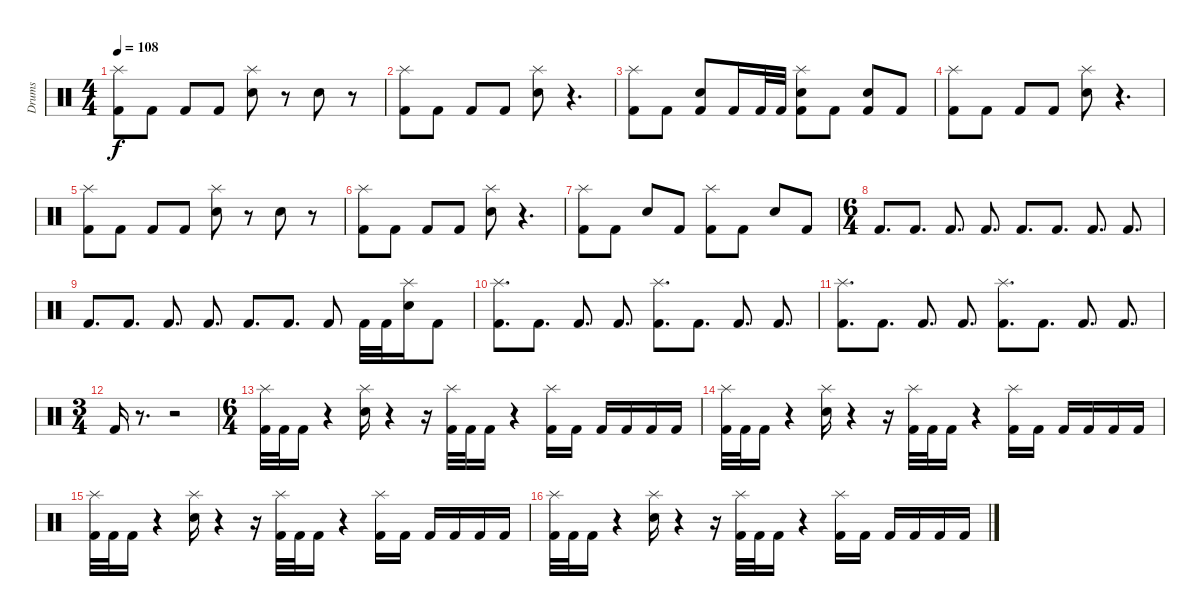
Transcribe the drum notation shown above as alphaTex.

\track ("Drums" "Drums") {instrument percussion}
\staff {score}
\articulation defaults
\ts (4 4)
\tempo 108
\clef neutral
\ks c
("Splash (hit)" "Kick (hit) 2").8{dy f} "Kick (hit) 2".8 "Kick (hit) 2".8 "Kick (hit) 2".8 ("Splash (hit)" "Snare (hit) 2").8 r.8 "Snare (hit) 2".8 r.8 |
("Splash (hit)" "Kick (hit) 2").8 "Kick (hit) 2".8 "Kick (hit) 2".8 "Kick (hit) 2".8 ("Splash (hit)" "Snare (hit) 2").8 r.4{d} |
("Splash (hit)" "Kick (hit) 2").8 "Kick (hit) 2".8 ("Snare (hit) 2" "Kick (hit) 2").8 "Kick (hit) 2".16 "Kick (hit) 2".32 "Kick (hit) 2".32 ("Splash (hit)" "Snare (hit) 2" "Kick (hit) 2").8 "Kick (hit) 2".8 ("Snare (hit) 2" "Kick (hit) 2").8 "Kick (hit) 2".8 |
("Splash (hit)" "Kick (hit) 2").8 "Kick (hit) 2".8 "Kick (hit) 2".8 "Kick (hit) 2".8 ("Splash (hit)" "Snare (hit) 2").8 r.4{d} |
("Splash (hit)" "Kick (hit) 2").8 "Kick (hit) 2".8 "Kick (hit) 2".8 "Kick (hit) 2".8 ("Splash (hit)" "Snare (hit) 2").8 r.8 "Snare (hit) 2".8 r.8 |
("Splash (hit)" "Kick (hit) 2").8 "Kick (hit) 2".8 "Kick (hit) 2".8 "Kick (hit) 2".8 ("Splash (hit)" "Snare (hit) 2").8 r.4{d} |
("Splash (hit)" "Kick (hit) 2").8 "Kick (hit) 2".8 "Snare (hit) 2".8 "Kick (hit) 2".8 ("Splash (hit)" "Kick (hit) 2").8 "Kick (hit) 2".8 "Snare (hit) 2".8 "Kick (hit) 2".8 |
\ts (6 4)
"Kick (hit) 2".8{d} "Kick (hit) 2".8{d} "Kick (hit) 2".8{d} "Kick (hit) 2".8{d} "Kick (hit) 2".8{d} "Kick (hit) 2".8{d} "Kick (hit) 2".8{d} "Kick (hit) 2".8{d} |
"Kick (hit) 2".8{d} "Kick (hit) 2".8{d} "Kick (hit) 2".8{d} "Kick (hit) 2".8{d} "Kick (hit) 2".8{d} "Kick (hit) 2".8{d} "Kick (hit) 2".8 "Kick (hit) 2".32 "Kick (hit) 2".32 ("Splash (hit)" "Snare (hit) 2").16 "Kick (hit) 2".8 |
("Splash (hit)" "Kick (hit) 2").8{d} "Kick (hit) 2".8{d} "Kick (hit) 2".8{d} "Kick (hit) 2".8{d} ("Splash (hit)" "Kick (hit) 2").8{d} "Kick (hit) 2".8{d} "Kick (hit) 2".8{d} "Kick (hit) 2".8{d} |
("Splash (hit)" "Kick (hit) 2").8{d} "Kick (hit) 2".8{d} "Kick (hit) 2".8{d} "Kick (hit) 2".8{d} ("Splash (hit)" "Kick (hit) 2").8{d} "Kick (hit) 2".8{d} "Kick (hit) 2".8{d} "Kick (hit) 2".8{d} |
\ts (3 4)
"Kick (hit) 2".16 r.8{d} r.2 |
\ts (6 4)
("Splash (hit)" "Kick (hit) 2").32 "Kick (hit) 2".32 "Kick (hit) 2".16 r.4 ("Splash (hit)" "Snare (hit) 2").16 r.4 r.16 ("Splash (hit)" "Kick (hit) 2").32 "Kick (hit) 2".32 "Kick (hit) 2".16 r.4 ("Splash (hit)" "Kick (hit) 2").16 "Kick (hit) 2".16 "Kick (hit) 2".16 "Kick (hit) 2".16 "Kick (hit) 2".16 "Kick (hit) 2".16 |
("Splash (hit)" "Kick (hit) 2").32 "Kick (hit) 2".32 "Kick (hit) 2".16 r.4 ("Splash (hit)" "Snare (hit) 2").16 r.4 r.16 ("Splash (hit)" "Kick (hit) 2").32 "Kick (hit) 2".32 "Kick (hit) 2".16 r.4 ("Splash (hit)" "Kick (hit) 2").16 "Kick (hit) 2".16 "Kick (hit) 2".16 "Kick (hit) 2".16 "Kick (hit) 2".16 "Kick (hit) 2".16 |
("Splash (hit)" "Kick (hit) 2").32 "Kick (hit) 2".32 "Kick (hit) 2".16 r.4 ("Splash (hit)" "Snare (hit) 2").16 r.4 r.16 ("Splash (hit)" "Kick (hit) 2").32 "Kick (hit) 2".32 "Kick (hit) 2".16 r.4 ("Splash (hit)" "Kick (hit) 2").16 "Kick (hit) 2".16 "Kick (hit) 2".16 "Kick (hit) 2".16 "Kick (hit) 2".16 "Kick (hit) 2".16 |
("Splash (hit)" "Kick (hit) 2").32 "Kick (hit) 2".32 "Kick (hit) 2".16 r.4 ("Splash (hit)" "Snare (hit) 2").16 r.4 r.16 ("Splash (hit)" "Kick (hit) 2").32 "Kick (hit) 2".32 "Kick (hit) 2".16 r.4 ("Splash (hit)" "Kick (hit) 2").16 "Kick (hit) 2".16 "Kick (hit) 2".16 "Kick (hit) 2".16 "Kick (hit) 2".16 "Kick (hit) 2".16
